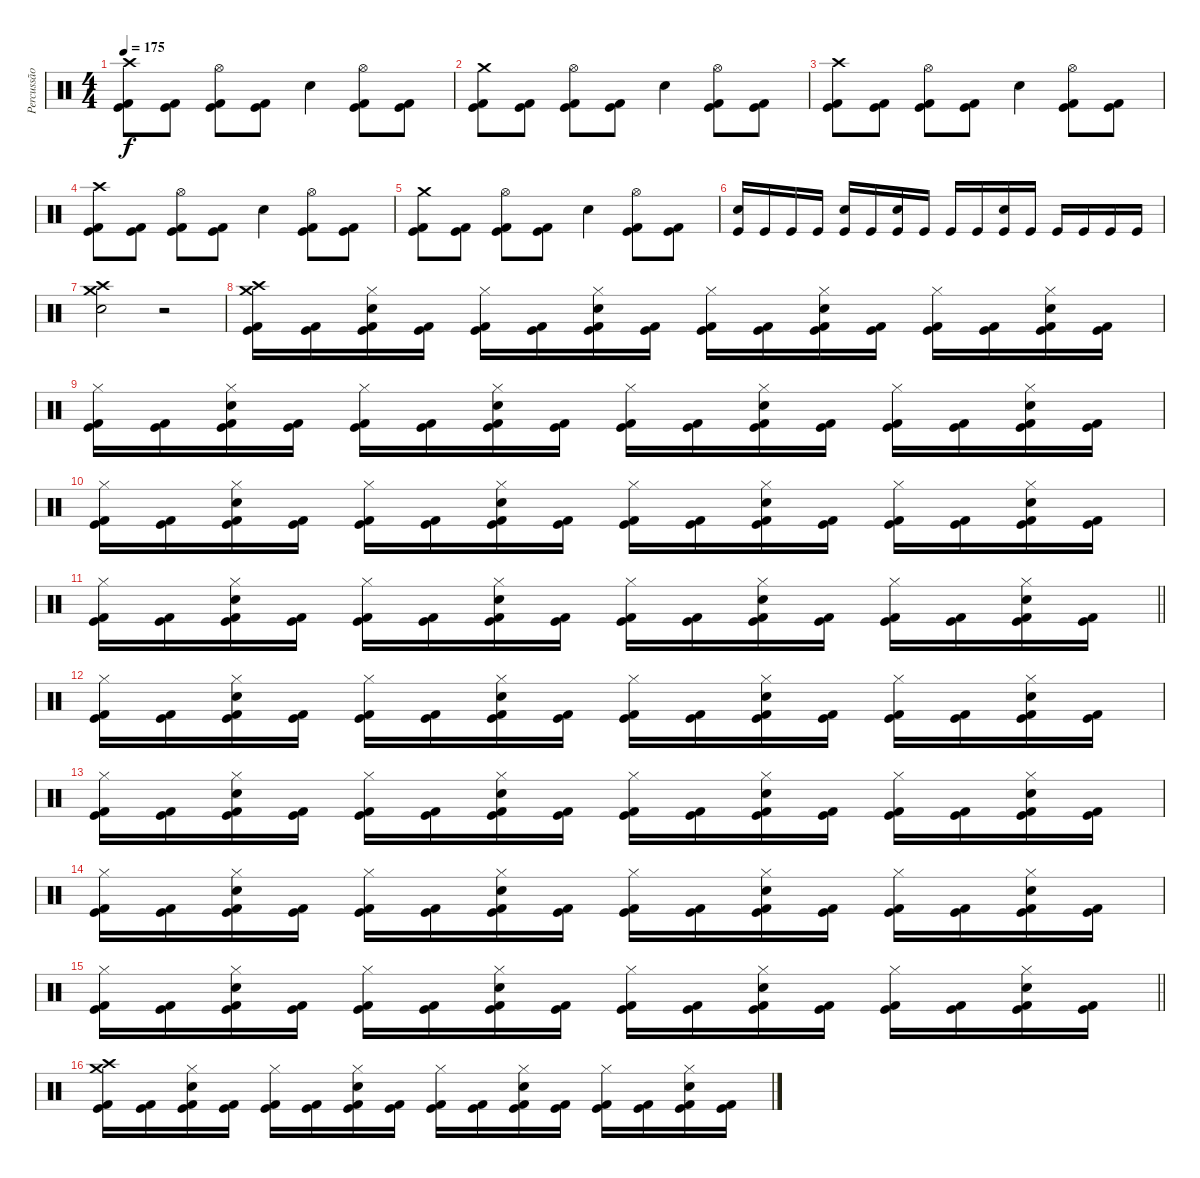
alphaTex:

\track ("Percussão" "Percussão") {instrument percussion}
\staff {score}
\articulation defaults
\ts (4 4)
\tempo 175
\clef neutral
\ks c
("Crash high (hit)" "Kick (hit) 2" "Kick (hit)").8{dy f} ("Kick (hit) 2" "Kick (hit)").8 ("Hi-Hat (open)" "Kick (hit) 2" "Kick (hit)").8 ("Kick (hit) 2" "Kick (hit)").8 "Electric Snare (hit)".4 ("Hi-Hat (open)" "Kick (hit) 2" "Kick (hit)").8 ("Kick (hit) 2" "Kick (hit)").8 |
("Crash medium (hit)" "Kick (hit) 2" "Kick (hit)").8 ("Kick (hit) 2" "Kick (hit)").8 ("Hi-Hat (open)" "Kick (hit) 2" "Kick (hit)").8 ("Kick (hit) 2" "Kick (hit)").8 "Electric Snare (hit)".4 ("Hi-Hat (open)" "Kick (hit) 2" "Kick (hit)").8 ("Kick (hit) 2" "Kick (hit)").8 |
("Crash high (hit)" "Kick (hit) 2" "Kick (hit)").8 ("Kick (hit) 2" "Kick (hit)").8 ("Hi-Hat (open)" "Kick (hit) 2" "Kick (hit)").8 ("Kick (hit) 2" "Kick (hit)").8 "Electric Snare (hit)".4 ("Hi-Hat (open)" "Kick (hit) 2" "Kick (hit)").8 ("Kick (hit) 2" "Kick (hit)").8 |
("Crash high (hit)" "Kick (hit) 2" "Kick (hit)").8 ("Kick (hit) 2" "Kick (hit)").8 ("Hi-Hat (open)" "Kick (hit) 2" "Kick (hit)").8 ("Kick (hit) 2" "Kick (hit)").8 "Electric Snare (hit)".4 ("Hi-Hat (open)" "Kick (hit) 2" "Kick (hit)").8 ("Kick (hit) 2" "Kick (hit)").8 |
("Crash medium (hit)" "Kick (hit) 2" "Kick (hit)").8 ("Kick (hit) 2" "Kick (hit)").8 ("Hi-Hat (open)" "Kick (hit) 2" "Kick (hit)").8 ("Kick (hit) 2" "Kick (hit)").8 "Electric Snare (hit)".4 ("Hi-Hat (open)" "Kick (hit) 2" "Kick (hit)").8 ("Kick (hit) 2" "Kick (hit)").8 |
("Electric Snare (hit)" "Kick (hit)").16 "Kick (hit)".16 "Kick (hit)".16 "Kick (hit)".16 ("Electric Snare (hit)" "Kick (hit)").16 "Kick (hit)".16 ("Electric Snare (hit)" "Kick (hit)").16 "Kick (hit)".16 "Kick (hit)".16 "Kick (hit)".16 ("Electric Snare (hit)" "Kick (hit)").16 "Kick (hit)".16 "Kick (hit)".16 "Kick (hit)".16 "Kick (hit)".16 "Kick (hit)".16 |
("Electric Snare (hit)" "Crash high (hit)" "Crash medium (hit)").2 r.2 |
("Crash high (hit)" "Crash medium (hit)" "Kick (hit)" "Kick (hit) 2").16 ("Kick (hit)" "Kick (hit) 2").16 ("Hi-Hat (closed)" "Electric Snare (hit)" "Kick (hit)" "Kick (hit) 2").16 ("Kick (hit)" "Kick (hit) 2").16 ("Hi-Hat (closed)" "Kick (hit)" "Kick (hit) 2").16 ("Kick (hit)" "Kick (hit) 2").16 ("Hi-Hat (closed)" "Electric Snare (hit)" "Kick (hit)" "Kick (hit) 2").16 ("Kick (hit)" "Kick (hit) 2").16 ("Hi-Hat (closed)" "Kick (hit)" "Kick (hit) 2").16 ("Kick (hit)" "Kick (hit) 2").16 ("Hi-Hat (closed)" "Electric Snare (hit)" "Kick (hit)" "Kick (hit) 2").16 ("Kick (hit)" "Kick (hit) 2").16 ("Hi-Hat (closed)" "Kick (hit)" "Kick (hit) 2").16 ("Kick (hit)" "Kick (hit) 2").16 ("Hi-Hat (closed)" "Electric Snare (hit)" "Kick (hit)" "Kick (hit) 2").16 ("Kick (hit)" "Kick (hit) 2").16 |
("Hi-Hat (closed)" "Kick (hit)" "Kick (hit) 2").16 ("Kick (hit)" "Kick (hit) 2").16 ("Hi-Hat (closed)" "Electric Snare (hit)" "Kick (hit)" "Kick (hit) 2").16 ("Kick (hit)" "Kick (hit) 2").16 ("Hi-Hat (closed)" "Kick (hit)" "Kick (hit) 2").16 ("Kick (hit)" "Kick (hit) 2").16 ("Hi-Hat (closed)" "Electric Snare (hit)" "Kick (hit)" "Kick (hit) 2").16 ("Kick (hit)" "Kick (hit) 2").16 ("Hi-Hat (closed)" "Kick (hit)" "Kick (hit) 2").16 ("Kick (hit)" "Kick (hit) 2").16 ("Hi-Hat (closed)" "Electric Snare (hit)" "Kick (hit)" "Kick (hit) 2").16 ("Kick (hit)" "Kick (hit) 2").16 ("Hi-Hat (closed)" "Kick (hit)" "Kick (hit) 2").16 ("Kick (hit)" "Kick (hit) 2").16 ("Hi-Hat (closed)" "Electric Snare (hit)" "Kick (hit)" "Kick (hit) 2").16 ("Kick (hit)" "Kick (hit) 2").16 |
("Hi-Hat (closed)" "Kick (hit)" "Kick (hit) 2").16 ("Kick (hit)" "Kick (hit) 2").16 ("Hi-Hat (closed)" "Electric Snare (hit)" "Kick (hit)" "Kick (hit) 2").16 ("Kick (hit)" "Kick (hit) 2").16 ("Hi-Hat (closed)" "Kick (hit)" "Kick (hit) 2").16 ("Kick (hit)" "Kick (hit) 2").16 ("Hi-Hat (closed)" "Electric Snare (hit)" "Kick (hit)" "Kick (hit) 2").16 ("Kick (hit)" "Kick (hit) 2").16 ("Hi-Hat (closed)" "Kick (hit)" "Kick (hit) 2").16 ("Kick (hit)" "Kick (hit) 2").16 ("Hi-Hat (closed)" "Electric Snare (hit)" "Kick (hit)" "Kick (hit) 2").16 ("Kick (hit)" "Kick (hit) 2").16 ("Hi-Hat (closed)" "Kick (hit)" "Kick (hit) 2").16 ("Kick (hit)" "Kick (hit) 2").16 ("Hi-Hat (closed)" "Electric Snare (hit)" "Kick (hit)" "Kick (hit) 2").16 ("Kick (hit)" "Kick (hit) 2").16 |
\barLineRight lightlight
("Hi-Hat (closed)" "Kick (hit)" "Kick (hit) 2").16 ("Kick (hit)" "Kick (hit) 2").16 ("Hi-Hat (closed)" "Electric Snare (hit)" "Kick (hit)" "Kick (hit) 2").16 ("Kick (hit)" "Kick (hit) 2").16 ("Hi-Hat (closed)" "Kick (hit)" "Kick (hit) 2").16 ("Kick (hit)" "Kick (hit) 2").16 ("Hi-Hat (closed)" "Electric Snare (hit)" "Kick (hit)" "Kick (hit) 2").16 ("Kick (hit)" "Kick (hit) 2").16 ("Hi-Hat (closed)" "Kick (hit)" "Kick (hit) 2").16 ("Kick (hit)" "Kick (hit) 2").16 ("Hi-Hat (closed)" "Electric Snare (hit)" "Kick (hit)" "Kick (hit) 2").16 ("Kick (hit)" "Kick (hit) 2").16 ("Hi-Hat (closed)" "Kick (hit)" "Kick (hit) 2").16 ("Kick (hit)" "Kick (hit) 2").16 ("Hi-Hat (closed)" "Electric Snare (hit)" "Kick (hit)" "Kick (hit) 2").16 ("Kick (hit)" "Kick (hit) 2").16 |
("Hi-Hat (closed)" "Kick (hit)" "Kick (hit) 2").16 ("Kick (hit)" "Kick (hit) 2").16 ("Hi-Hat (closed)" "Electric Snare (hit)" "Kick (hit)" "Kick (hit) 2").16 ("Kick (hit)" "Kick (hit) 2").16 ("Hi-Hat (closed)" "Kick (hit)" "Kick (hit) 2").16 ("Kick (hit)" "Kick (hit) 2").16 ("Hi-Hat (closed)" "Electric Snare (hit)" "Kick (hit)" "Kick (hit) 2").16 ("Kick (hit)" "Kick (hit) 2").16 ("Hi-Hat (closed)" "Kick (hit)" "Kick (hit) 2").16 ("Kick (hit)" "Kick (hit) 2").16 ("Hi-Hat (closed)" "Electric Snare (hit)" "Kick (hit)" "Kick (hit) 2").16 ("Kick (hit)" "Kick (hit) 2").16 ("Hi-Hat (closed)" "Kick (hit)" "Kick (hit) 2").16 ("Kick (hit)" "Kick (hit) 2").16 ("Hi-Hat (closed)" "Electric Snare (hit)" "Kick (hit)" "Kick (hit) 2").16 ("Kick (hit)" "Kick (hit) 2").16 |
("Hi-Hat (closed)" "Kick (hit)" "Kick (hit) 2").16 ("Kick (hit)" "Kick (hit) 2").16 ("Hi-Hat (closed)" "Electric Snare (hit)" "Kick (hit)" "Kick (hit) 2").16 ("Kick (hit)" "Kick (hit) 2").16 ("Hi-Hat (closed)" "Kick (hit)" "Kick (hit) 2").16 ("Kick (hit)" "Kick (hit) 2").16 ("Hi-Hat (closed)" "Electric Snare (hit)" "Kick (hit)" "Kick (hit) 2").16 ("Kick (hit)" "Kick (hit) 2").16 ("Hi-Hat (closed)" "Kick (hit)" "Kick (hit) 2").16 ("Kick (hit)" "Kick (hit) 2").16 ("Hi-Hat (closed)" "Electric Snare (hit)" "Kick (hit)" "Kick (hit) 2").16 ("Kick (hit)" "Kick (hit) 2").16 ("Hi-Hat (closed)" "Kick (hit)" "Kick (hit) 2").16 ("Kick (hit)" "Kick (hit) 2").16 ("Hi-Hat (closed)" "Electric Snare (hit)" "Kick (hit)" "Kick (hit) 2").16 ("Kick (hit)" "Kick (hit) 2").16 |
("Hi-Hat (closed)" "Kick (hit)" "Kick (hit) 2").16 ("Kick (hit)" "Kick (hit) 2").16 ("Hi-Hat (closed)" "Electric Snare (hit)" "Kick (hit)" "Kick (hit) 2").16 ("Kick (hit)" "Kick (hit) 2").16 ("Hi-Hat (closed)" "Kick (hit)" "Kick (hit) 2").16 ("Kick (hit)" "Kick (hit) 2").16 ("Hi-Hat (closed)" "Electric Snare (hit)" "Kick (hit)" "Kick (hit) 2").16 ("Kick (hit)" "Kick (hit) 2").16 ("Hi-Hat (closed)" "Kick (hit)" "Kick (hit) 2").16 ("Kick (hit)" "Kick (hit) 2").16 ("Hi-Hat (closed)" "Electric Snare (hit)" "Kick (hit)" "Kick (hit) 2").16 ("Kick (hit)" "Kick (hit) 2").16 ("Hi-Hat (closed)" "Kick (hit)" "Kick (hit) 2").16 ("Kick (hit)" "Kick (hit) 2").16 ("Hi-Hat (closed)" "Electric Snare (hit)" "Kick (hit)" "Kick (hit) 2").16 ("Kick (hit)" "Kick (hit) 2").16 |
\barLineRight lightlight
("Hi-Hat (closed)" "Kick (hit)" "Kick (hit) 2").16 ("Kick (hit)" "Kick (hit) 2").16 ("Hi-Hat (closed)" "Electric Snare (hit)" "Kick (hit)" "Kick (hit) 2").16 ("Kick (hit)" "Kick (hit) 2").16 ("Hi-Hat (closed)" "Kick (hit)" "Kick (hit) 2").16 ("Kick (hit)" "Kick (hit) 2").16 ("Hi-Hat (closed)" "Electric Snare (hit)" "Kick (hit)" "Kick (hit) 2").16 ("Kick (hit)" "Kick (hit) 2").16 ("Hi-Hat (closed)" "Kick (hit)" "Kick (hit) 2").16 ("Kick (hit)" "Kick (hit) 2").16 ("Hi-Hat (closed)" "Electric Snare (hit)" "Kick (hit)" "Kick (hit) 2").16 ("Kick (hit)" "Kick (hit) 2").16 ("Hi-Hat (closed)" "Kick (hit)" "Kick (hit) 2").16 ("Kick (hit)" "Kick (hit) 2").16 ("Hi-Hat (closed)" "Electric Snare (hit)" "Kick (hit)" "Kick (hit) 2").16 ("Kick (hit)" "Kick (hit) 2").16 |
("Crash high (hit)" "Crash medium (hit)" "Kick (hit)" "Kick (hit) 2").16 ("Kick (hit)" "Kick (hit) 2").16 ("Hi-Hat (closed)" "Electric Snare (hit)" "Kick (hit)" "Kick (hit) 2").16 ("Kick (hit)" "Kick (hit) 2").16 ("Hi-Hat (closed)" "Kick (hit)" "Kick (hit) 2").16 ("Kick (hit)" "Kick (hit) 2").16 ("Hi-Hat (closed)" "Electric Snare (hit)" "Kick (hit)" "Kick (hit) 2").16 ("Kick (hit)" "Kick (hit) 2").16 ("Hi-Hat (closed)" "Kick (hit)" "Kick (hit) 2").16 ("Kick (hit)" "Kick (hit) 2").16 ("Hi-Hat (closed)" "Electric Snare (hit)" "Kick (hit)" "Kick (hit) 2").16 ("Kick (hit)" "Kick (hit) 2").16 ("Hi-Hat (closed)" "Kick (hit)" "Kick (hit) 2").16 ("Kick (hit)" "Kick (hit) 2").16 ("Hi-Hat (closed)" "Electric Snare (hit)" "Kick (hit)" "Kick (hit) 2").16 ("Kick (hit)" "Kick (hit) 2").16
